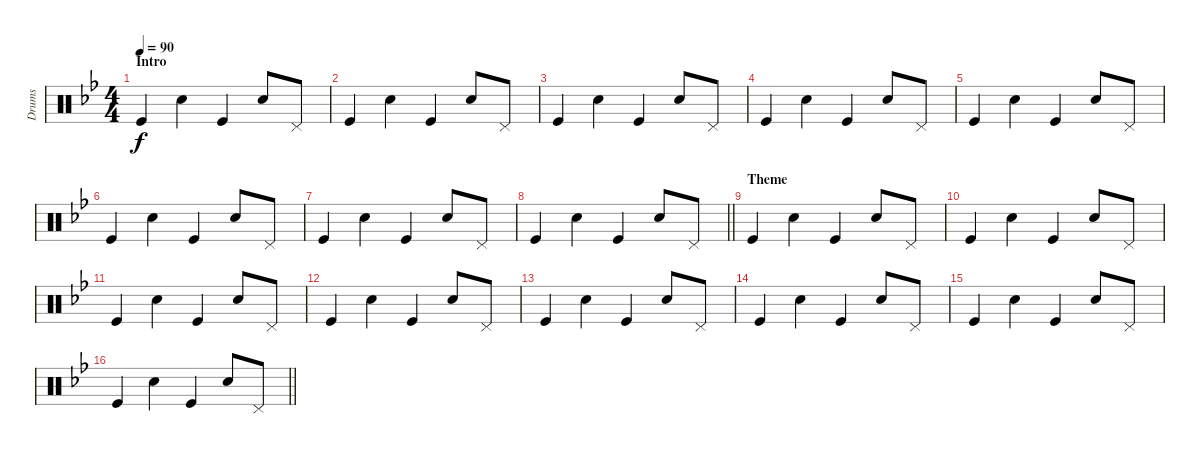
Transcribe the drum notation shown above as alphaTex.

\track ("Drums" "Drums") {instrument percussion}
\staff {score}
\articulation defaults
\ts (4 4)
\section ("" "Intro")
\tempo 90
\clef neutral
\ks bb "Kick (hit)".4{dy f} "Electric Snare (hit)".4 "Kick (hit)".4 "Electric Snare (hit)".8 "Pedal Hi-Hat (hit)".8
|
"Kick (hit)".4 "Electric Snare (hit)".4 "Kick (hit)".4 "Electric Snare (hit)".8 "Pedal Hi-Hat (hit)".8 |
"Kick (hit)".4 "Electric Snare (hit)".4 "Kick (hit)".4 "Electric Snare (hit)".8 "Pedal Hi-Hat (hit)".8 |
"Kick (hit)".4 "Electric Snare (hit)".4 "Kick (hit)".4 "Electric Snare (hit)".8 "Pedal Hi-Hat (hit)".8 |
"Kick (hit)".4 "Electric Snare (hit)".4 "Kick (hit)".4 "Electric Snare (hit)".8 "Pedal Hi-Hat (hit)".8 |
"Kick (hit)".4 "Electric Snare (hit)".4 "Kick (hit)".4 "Electric Snare (hit)".8 "Pedal Hi-Hat (hit)".8 |
"Kick (hit)".4 "Electric Snare (hit)".4 "Kick (hit)".4 "Electric Snare (hit)".8 "Pedal Hi-Hat (hit)".8 |
\barLineRight lightlight "Kick (hit)".4 "Electric Snare (hit)".4 "Kick (hit)".4 "Electric Snare (hit)".8 "Pedal Hi-Hat (hit)".8
|
\section ("" "Theme")
"Kick (hit)".4 "Electric Snare (hit)".4 "Kick (hit)".4 "Electric Snare (hit)".8 "Pedal Hi-Hat (hit)".8 |
"Kick (hit)".4 "Electric Snare (hit)".4 "Kick (hit)".4 "Electric Snare (hit)".8 "Pedal Hi-Hat (hit)".8 |
"Kick (hit)".4 "Electric Snare (hit)".4 "Kick (hit)".4 "Electric Snare (hit)".8 "Pedal Hi-Hat (hit)".8 |
"Kick (hit)".4 "Electric Snare (hit)".4 "Kick (hit)".4 "Electric Snare (hit)".8 "Pedal Hi-Hat (hit)".8 |
"Kick (hit)".4 "Electric Snare (hit)".4 "Kick (hit)".4 "Electric Snare (hit)".8 "Pedal Hi-Hat (hit)".8 |
"Kick (hit)".4 "Electric Snare (hit)".4 "Kick (hit)".4 "Electric Snare (hit)".8 "Pedal Hi-Hat (hit)".8 |
"Kick (hit)".4 "Electric Snare (hit)".4 "Kick (hit)".4 "Electric Snare (hit)".8 "Pedal Hi-Hat (hit)".8 |
\barLineRight lightlight "Kick (hit)".4 "Electric Snare (hit)".4 "Kick (hit)".4 "Electric Snare (hit)".8 "Pedal Hi-Hat (hit)".8
